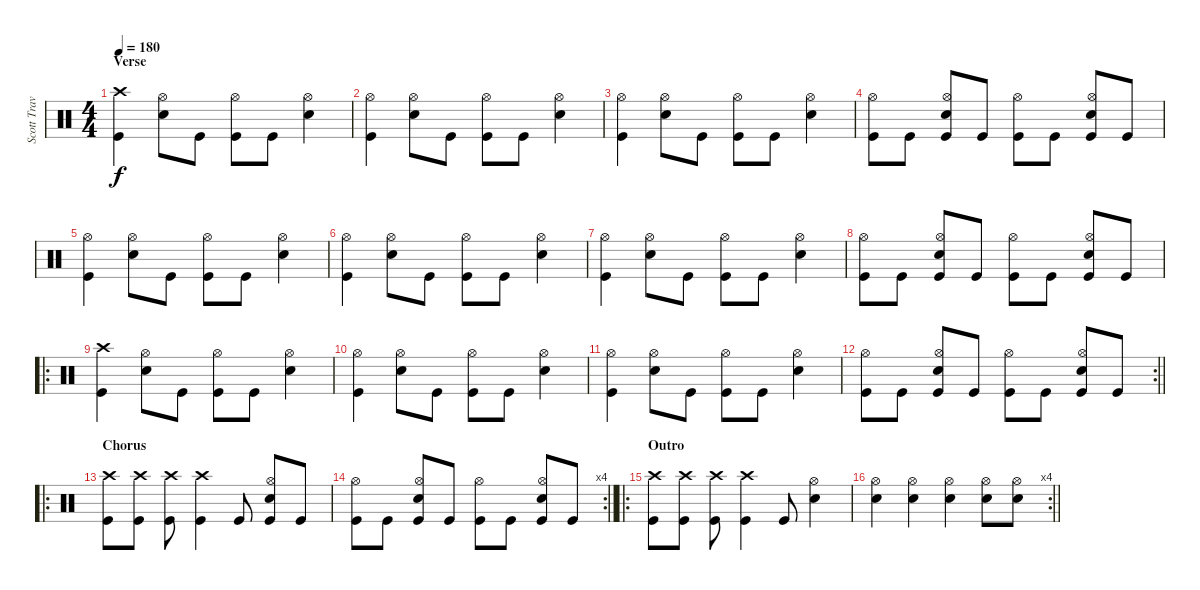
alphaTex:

\track ("Scott Travis" "Scott Trav") {instrument percussion}
\staff {score}
\articulation defaults
\ts (4 4)
\section ("" "Verse")
\tempo 180
\clef neutral
\ks c
("Crash high (hit)" "Kick (hit)").4{dy f} ("Hi-Hat (open)" "Snare (hit) 2").8 "Kick (hit)".8 ("Hi-Hat (open)" "Kick (hit)").8 "Kick (hit)".8 ("Hi-Hat (open)" "Snare (hit) 2").4 |
("Hi-Hat (open)" "Kick (hit)").4 ("Hi-Hat (open)" "Snare (hit) 2").8 "Kick (hit)".8 ("Hi-Hat (open)" "Kick (hit)").8 "Kick (hit)".8 ("Hi-Hat (open)" "Snare (hit) 2").4 |
("Hi-Hat (open)" "Kick (hit)").4 ("Hi-Hat (open)" "Snare (hit) 2").8 "Kick (hit)".8 ("Hi-Hat (open)" "Kick (hit)").8 "Kick (hit)".8 ("Hi-Hat (open)" "Snare (hit) 2").4 |
("Hi-Hat (open)" "Kick (hit)").8 "Kick (hit)".8 ("Hi-Hat (open)" "Snare (hit) 2" "Kick (hit)").8 "Kick (hit)".8 ("Hi-Hat (open)" "Kick (hit)").8 "Kick (hit)".8 ("Hi-Hat (open)" "Snare (hit) 2" "Kick (hit)").8 "Kick (hit)".8 |
("Hi-Hat (open)" "Kick (hit)").4 ("Hi-Hat (open)" "Snare (hit) 2").8 "Kick (hit)".8 ("Hi-Hat (open)" "Kick (hit)").8 "Kick (hit)".8 ("Hi-Hat (open)" "Snare (hit) 2").4 |
("Hi-Hat (open)" "Kick (hit)").4 ("Hi-Hat (open)" "Snare (hit) 2").8 "Kick (hit)".8 ("Hi-Hat (open)" "Kick (hit)").8 "Kick (hit)".8 ("Hi-Hat (open)" "Snare (hit) 2").4 |
("Hi-Hat (open)" "Kick (hit)").4 ("Hi-Hat (open)" "Snare (hit) 2").8 "Kick (hit)".8 ("Hi-Hat (open)" "Kick (hit)").8 "Kick (hit)".8 ("Hi-Hat (open)" "Snare (hit) 2").4 |
("Hi-Hat (open)" "Kick (hit)").8 "Kick (hit)".8 ("Hi-Hat (open)" "Snare (hit) 2" "Kick (hit)").8 "Kick (hit)".8 ("Hi-Hat (open)" "Kick (hit)").8 "Kick (hit)".8 ("Hi-Hat (open)" "Snare (hit) 2" "Kick (hit)").8 "Kick (hit)".8 |
\ro
("Crash high (hit)" "Kick (hit)").4 ("Hi-Hat (open)" "Snare (hit) 2").8 "Kick (hit)".8 ("Hi-Hat (open)" "Kick (hit)").8 "Kick (hit)".8 ("Hi-Hat (open)" "Snare (hit) 2").4 |
("Hi-Hat (open)" "Kick (hit)").4 ("Hi-Hat (open)" "Snare (hit) 2").8 "Kick (hit)".8 ("Hi-Hat (open)" "Kick (hit)").8 "Kick (hit)".8 ("Hi-Hat (open)" "Snare (hit) 2").4 |
("Hi-Hat (open)" "Kick (hit)").4 ("Hi-Hat (open)" "Snare (hit) 2").8 "Kick (hit)".8 ("Hi-Hat (open)" "Kick (hit)").8 "Kick (hit)".8 ("Hi-Hat (open)" "Snare (hit) 2").4 |
\rc 2
\barLineRight lightlight
("Hi-Hat (open)" "Kick (hit)").8 "Kick (hit)".8 ("Hi-Hat (open)" "Snare (hit) 2" "Kick (hit)").8 "Kick (hit)".8 ("Hi-Hat (open)" "Kick (hit)").8 "Kick (hit)".8 ("Hi-Hat (open)" "Snare (hit) 2" "Kick (hit)").8 "Kick (hit)".8 |
\ro
\section ("" "Chorus")
("Crash high (hit)" "Kick (hit)").8 ("Crash high (hit)" "Kick (hit)").8 ("Crash high (hit)" "Kick (hit)").8 ("Crash high (hit)" "Kick (hit)").4 "Kick (hit)".8 ("Hi-Hat (open)" "Snare (hit) 2" "Kick (hit)").8 "Kick (hit)".8 |
\rc 4
\barLineRight lightlight
("Hi-Hat (open)" "Kick (hit)").8 "Kick (hit)".8 ("Hi-Hat (open)" "Snare (hit) 2" "Kick (hit)").8 "Kick (hit)".8 ("Hi-Hat (open)" "Kick (hit)").8 "Kick (hit)".8 ("Hi-Hat (open)" "Snare (hit) 2" "Kick (hit)").8 "Kick (hit)".8 |
\ro
\section ("" "Outro")
("Crash high (hit)" "Kick (hit)").8 ("Crash high (hit)" "Kick (hit)").8 ("Crash high (hit)" "Kick (hit)").8 ("Crash high (hit)" "Kick (hit)").4 "Kick (hit)".8 ("Hi-Hat (open)" "Snare (hit) 2").4 |
\rc 4
\barLineRight lightlight
("Hi-Hat (open)" "Snare (hit) 2").4 ("Hi-Hat (open)" "Snare (hit) 2").4 ("Hi-Hat (open)" "Snare (hit) 2").4 ("Hi-Hat (open)" "Snare (hit) 2").8 ("Hi-Hat (open)" "Snare (hit) 2").8
